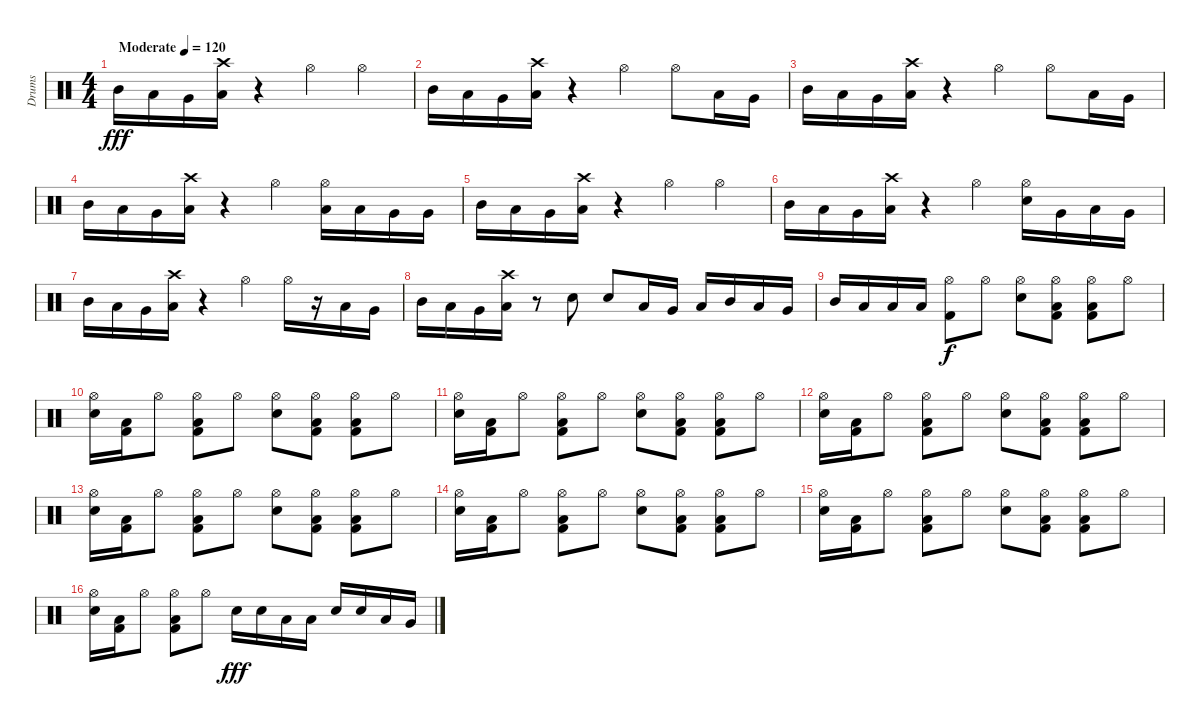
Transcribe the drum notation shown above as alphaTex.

\track ("Drums" "Drums") {instrument percussion}
\staff {score}
\articulation defaults
\ts (4 4)
\tempo (120 "Moderate")
\clef neutral
\ks c "Mid Tom (hit)".16{dy fff} "Low Tom (hit)".16 "Very Low Tom (hit)".16
("Crash high (hit)" "Low Tom (hit)").16 r.4 "Hi-Hat (open)".4 "Hi-Hat (open)".4 |
"Mid Tom (hit)".16 "Low Tom (hit)".16 "Very Low Tom (hit)".16 ("Crash high (hit)" "Low Tom (hit)").16 r.4 "Hi-Hat (open)".4 "Hi-Hat (open)".8 "Low Tom (hit)".16 "Very Low Tom (hit)".16 |
"Mid Tom (hit)".16 "Low Tom (hit)".16 "Very Low Tom (hit)".16 ("Crash high (hit)" "Low Tom (hit)").16 r.4 "Hi-Hat (open)".4 "Hi-Hat (open)".8 "Low Tom (hit)".16 "Very Low Tom (hit)".16 |
"Mid Tom (hit)".16 "Low Tom (hit)".16 "Very Low Tom (hit)".16 ("Crash high (hit)" "Low Tom (hit)").16 r.4 "Hi-Hat (open)".4 ("Hi-Hat (open)" "Low Tom (hit)").16 "Low Tom (hit)".16 "Very Low Tom (hit)".16 "Very Low Tom (hit)".16 |
"Mid Tom (hit)".16 "Low Tom (hit)".16 "Very Low Tom (hit)".16 ("Crash high (hit)" "Low Tom (hit)").16 r.4 "Hi-Hat (open)".4 "Hi-Hat (open)".4 |
"Mid Tom (hit)".16 "Low Tom (hit)".16 "Very Low Tom (hit)".16 ("Crash high (hit)" "Low Tom (hit)").16 r.4 "Hi-Hat (open)".4 ("Hi-Hat (open)" "Electric Snare (hit)").16 "Very Low Tom (hit)".16 "Low Tom (hit)".16 "Very Low Tom (hit)".16 |
"Mid Tom (hit)".16 "Low Tom (hit)".16 "Very Low Tom (hit)".16 ("Crash high (hit)" "Low Tom (hit)").16 r.4 "Hi-Hat (open)".4 "Hi-Hat (open)".16 r.16 "Low Tom (hit)".16 "Very Low Tom (hit)".16 |
"Mid Tom (hit)".16 "Low Tom (hit)".16 "Very Low Tom (hit)".16 ("Crash high (hit)" "Low Tom (hit)").16 r.8 "Electric Snare (hit)".8 "Electric Snare (hit)".8 "Low Tom (hit)".16 "Very Low Tom (hit)".16 "Low Tom (hit)".16 "Mid Tom (hit)".16 "Low Tom (hit)".16 "Very Low Tom (hit)".16 |
"Mid Tom (hit)".16 "Low Tom (hit)".16 "Low Tom (hit)".16 "Low Tom (hit)".16 ("Hi-Hat (open)" "Kick (hit) 2").8{dy f} "Hi-Hat (open)".8 ("Hi-Hat (open)" "Electric Snare (hit)").8 ("Hi-Hat (open)" "Low Tom (hit)" "Kick (hit) 2").8 ("Hi-Hat (open)" "Low Tom (hit)" "Kick (hit) 2").8 "Hi-Hat (open)".8 |
("Hi-Hat (open)" "Electric Snare (hit)").16 ("Low Tom (hit)" "Kick (hit) 2").16 "Hi-Hat (open)".8 ("Hi-Hat (open)" "Low Tom (hit)" "Kick (hit) 2").8 "Hi-Hat (open)".8 ("Hi-Hat (open)" "Electric Snare (hit)").8 ("Hi-Hat (open)" "Low Tom (hit)" "Kick (hit) 2").8 ("Hi-Hat (open)" "Low Tom (hit)" "Kick (hit) 2").8 "Hi-Hat (open)".8 |
("Hi-Hat (open)" "Electric Snare (hit)").16 ("Low Tom (hit)" "Kick (hit) 2").16 "Hi-Hat (open)".8 ("Hi-Hat (open)" "Low Tom (hit)" "Kick (hit) 2").8 "Hi-Hat (open)".8 ("Hi-Hat (open)" "Electric Snare (hit)").8 ("Hi-Hat (open)" "Low Tom (hit)" "Kick (hit) 2").8 ("Hi-Hat (open)" "Low Tom (hit)" "Kick (hit) 2").8 "Hi-Hat (open)".8 |
("Hi-Hat (open)" "Electric Snare (hit)").16 ("Low Tom (hit)" "Kick (hit) 2").16 "Hi-Hat (open)".8 ("Hi-Hat (open)" "Low Tom (hit)" "Kick (hit) 2").8 "Hi-Hat (open)".8 ("Hi-Hat (open)" "Electric Snare (hit)").8 ("Hi-Hat (open)" "Low Tom (hit)" "Kick (hit) 2").8 ("Hi-Hat (open)" "Low Tom (hit)" "Kick (hit) 2").8 "Hi-Hat (open)".8 |
("Hi-Hat (open)" "Electric Snare (hit)").16 ("Low Tom (hit)" "Kick (hit) 2").16 "Hi-Hat (open)".8 ("Hi-Hat (open)" "Low Tom (hit)" "Kick (hit) 2").8 "Hi-Hat (open)".8 ("Hi-Hat (open)" "Electric Snare (hit)").8 ("Hi-Hat (open)" "Low Tom (hit)" "Kick (hit) 2").8 ("Hi-Hat (open)" "Low Tom (hit)" "Kick (hit) 2").8 "Hi-Hat (open)".8 |
("Hi-Hat (open)" "Electric Snare (hit)").16 ("Low Tom (hit)" "Kick (hit) 2").16 "Hi-Hat (open)".8 ("Hi-Hat (open)" "Low Tom (hit)" "Kick (hit) 2").8 "Hi-Hat (open)".8 ("Hi-Hat (open)" "Electric Snare (hit)").8 ("Hi-Hat (open)" "Low Tom (hit)" "Kick (hit) 2").8 ("Hi-Hat (open)" "Low Tom (hit)" "Kick (hit) 2").8 "Hi-Hat (open)".8 |
("Hi-Hat (open)" "Electric Snare (hit)").16 ("Low Tom (hit)" "Kick (hit) 2").16 "Hi-Hat (open)".8 ("Hi-Hat (open)" "Low Tom (hit)" "Kick (hit) 2").8 "Hi-Hat (open)".8 ("Hi-Hat (open)" "Electric Snare (hit)").8 ("Hi-Hat (open)" "Low Tom (hit)" "Kick (hit) 2").8 ("Hi-Hat (open)" "Low Tom (hit)" "Kick (hit) 2").8 "Hi-Hat (open)".8 |
("Hi-Hat (open)" "Electric Snare (hit)").16 ("Low Tom (hit)" "Kick (hit) 2").16 "Hi-Hat (open)".8 ("Hi-Hat (open)" "Low Tom (hit)" "Kick (hit) 2").8 "Hi-Hat (open)".8 "Electric Snare (hit)".16{dy fff} "Electric Snare (hit)".16 "Low Tom (hit)".16 "Low Tom (hit)".16 "Electric Snare (hit)".16 "Electric Snare (hit)".16 "Low Tom (hit)".16 "Very Low Tom (hit)".16
